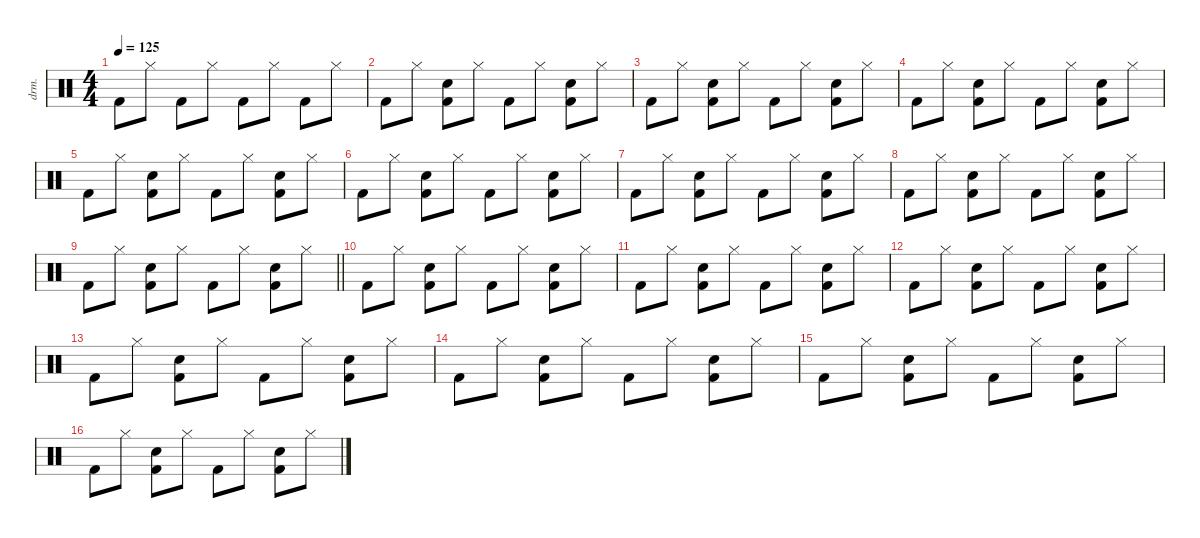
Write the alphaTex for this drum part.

\defaultSystemsLayout 4
\hideDynamics
\bracketExtendMode nobrackets
\otherSystemsTrackNameOrientation horizontal
\track ("Beat" "drm.") {instrument percussion}
\staff {score}
\articulation defaults
\ts (4 4)
\beaming (8 2 2 2 2)
\tempo 125
\clef neutral
\ks c "Kick (hit) 2".8{dy f beam Down} "Hi-Hat (closed)".8{beam Down} "Kick (hit) 2".8{beam Down} "Hi-Hat (closed)".8{beam Down} "Kick (hit) 2".8{beam Down} "Hi-Hat (closed)".8{beam Down} "Kick (hit) 2".8{beam Down} "Hi-Hat (closed)".8{beam Down}
|
"Kick (hit) 2".8{beam Down} "Hi-Hat (closed)".8{beam Down} ("Snare (hit) 2" "Kick (hit) 2").8{beam Down} "Hi-Hat (closed)".8{beam Down} "Kick (hit) 2".8{beam Down} "Hi-Hat (closed)".8{beam Down} ("Snare (hit) 2" "Kick (hit) 2").8{beam Down} "Hi-Hat (closed)".8{beam Down} |
"Kick (hit) 2".8{beam Down} "Hi-Hat (closed)".8{beam Down} ("Snare (hit) 2" "Kick (hit) 2").8{beam Down} "Hi-Hat (closed)".8{beam Down} "Kick (hit) 2".8{beam Down} "Hi-Hat (closed)".8{beam Down} ("Snare (hit) 2" "Kick (hit) 2").8{beam Down} "Hi-Hat (closed)".8{beam Down} |
"Kick (hit) 2".8{beam Down} "Hi-Hat (closed)".8{beam Down} ("Snare (hit) 2" "Kick (hit) 2").8{beam Down} "Hi-Hat (closed)".8{beam Down} "Kick (hit) 2".8{beam Down} "Hi-Hat (closed)".8{beam Down} ("Snare (hit) 2" "Kick (hit) 2").8{beam Down} "Hi-Hat (closed)".8{beam Down} |
"Kick (hit) 2".8{beam Down} "Hi-Hat (closed)".8{beam Down} ("Snare (hit) 2" "Kick (hit) 2").8{beam Down} "Hi-Hat (closed)".8{beam Down} "Kick (hit) 2".8{beam Down} "Hi-Hat (closed)".8{beam Down} ("Snare (hit) 2" "Kick (hit) 2").8{beam Down} "Hi-Hat (closed)".8{beam Down} |
"Kick (hit) 2".8{beam Down} "Hi-Hat (closed)".8{beam Down} ("Snare (hit) 2" "Kick (hit) 2").8{beam Down} "Hi-Hat (closed)".8{beam Down} "Kick (hit) 2".8{beam Down} "Hi-Hat (closed)".8{beam Down} ("Snare (hit) 2" "Kick (hit) 2").8{beam Down} "Hi-Hat (closed)".8{beam Down} |
"Kick (hit) 2".8{beam Down} "Hi-Hat (closed)".8{beam Down} ("Snare (hit) 2" "Kick (hit) 2").8{beam Down} "Hi-Hat (closed)".8{beam Down} "Kick (hit) 2".8{beam Down} "Hi-Hat (closed)".8{beam Down} ("Snare (hit) 2" "Kick (hit) 2").8{beam Down} "Hi-Hat (closed)".8{beam Down} |
"Kick (hit) 2".8{beam Down} "Hi-Hat (closed)".8{beam Down} ("Snare (hit) 2" "Kick (hit) 2").8{beam Down} "Hi-Hat (closed)".8{beam Down} "Kick (hit) 2".8{beam Down} "Hi-Hat (closed)".8{beam Down} ("Snare (hit) 2" "Kick (hit) 2").8{beam Down} "Hi-Hat (closed)".8{beam Down} |
\barLineRight lightlight "Kick (hit) 2".8{beam Down} "Hi-Hat (closed)".8{beam Down}
("Snare (hit) 2" "Kick (hit) 2").8{beam Down} "Hi-Hat (closed)".8{beam Down} "Kick (hit) 2".8{beam Down} "Hi-Hat (closed)".8{beam Down} ("Snare (hit) 2" "Kick (hit) 2").8{beam Down} "Hi-Hat (closed)".8{beam Down} |
"Kick (hit) 2".8{beam Down} "Hi-Hat (closed)".8{beam Down} ("Snare (hit) 2" "Kick (hit) 2").8{beam Down} "Hi-Hat (closed)".8{beam Down} "Kick (hit) 2".8{beam Down} "Hi-Hat (closed)".8{beam Down} ("Snare (hit) 2" "Kick (hit) 2").8{beam Down} "Hi-Hat (closed)".8{beam Down} |
"Kick (hit) 2".8{beam Down} "Hi-Hat (closed)".8{beam Down} ("Snare (hit) 2" "Kick (hit) 2").8{beam Down} "Hi-Hat (closed)".8{beam Down} "Kick (hit) 2".8{beam Down} "Hi-Hat (closed)".8{beam Down} ("Snare (hit) 2" "Kick (hit) 2").8{beam Down} "Hi-Hat (closed)".8{beam Down} |
"Kick (hit) 2".8{beam Down} "Hi-Hat (closed)".8{beam Down} ("Snare (hit) 2" "Kick (hit) 2").8{beam Down} "Hi-Hat (closed)".8{beam Down} "Kick (hit) 2".8{beam Down} "Hi-Hat (closed)".8{beam Down} ("Snare (hit) 2" "Kick (hit) 2").8{beam Down} "Hi-Hat (closed)".8{beam Down} |
"Kick (hit) 2".8{beam Down} "Hi-Hat (closed)".8{beam Down} ("Snare (hit) 2" "Kick (hit) 2").8{beam Down} "Hi-Hat (closed)".8{beam Down} "Kick (hit) 2".8{beam Down} "Hi-Hat (closed)".8{beam Down} ("Snare (hit) 2" "Kick (hit) 2").8{beam Down} "Hi-Hat (closed)".8{beam Down} |
"Kick (hit) 2".8{beam Down} "Hi-Hat (closed)".8{beam Down} ("Snare (hit) 2" "Kick (hit) 2").8{beam Down} "Hi-Hat (closed)".8{beam Down} "Kick (hit) 2".8{beam Down} "Hi-Hat (closed)".8{beam Down} ("Snare (hit) 2" "Kick (hit) 2").8{beam Down} "Hi-Hat (closed)".8{beam Down} |
"Kick (hit) 2".8{beam Down} "Hi-Hat (closed)".8{beam Down} ("Snare (hit) 2" "Kick (hit) 2").8{beam Down} "Hi-Hat (closed)".8{beam Down} "Kick (hit) 2".8{beam Down} "Hi-Hat (closed)".8{beam Down} ("Snare (hit) 2" "Kick (hit) 2").8{beam Down} "Hi-Hat (closed)".8{beam Down} |
"Kick (hit) 2".8{beam Down} "Hi-Hat (closed)".8{beam Down} ("Snare (hit) 2" "Kick (hit) 2").8{beam Down} "Hi-Hat (closed)".8{beam Down} "Kick (hit) 2".8{beam Down} "Hi-Hat (closed)".8{beam Down} ("Snare (hit) 2" "Kick (hit) 2").8{beam Down} "Hi-Hat (closed)".8{beam Down}
